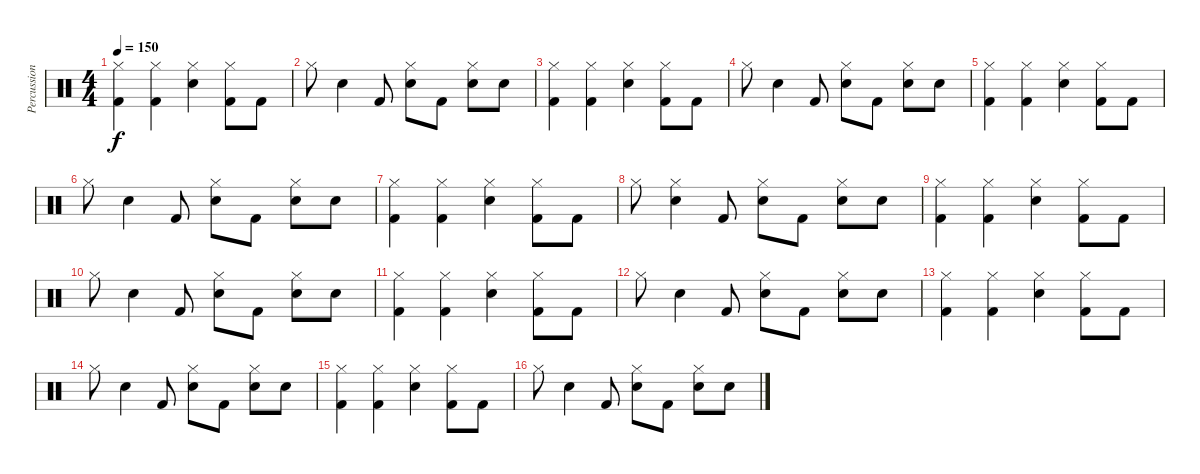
\track ("Percussion" "Percussion") {instrument percussion}
\staff {score}
\articulation defaults
\ts (4 4)
\tempo 150
\clef neutral
\ks c
("Hi-Hat (closed)" "Kick (hit) 2").4{dy f} ("Hi-Hat (closed)" "Kick (hit) 2").4 ("Hi-Hat (closed)" "Snare (hit) 2").4 ("Hi-Hat (closed)" "Kick (hit) 2").8 "Kick (hit) 2".8 |
"Hi-Hat (closed)".8 "Snare (hit) 2".4 "Kick (hit) 2".8 ("Snare (hit) 2" "Hi-Hat (closed)").8 "Kick (hit) 2".8 ("Snare (hit) 2" "Hi-Hat (closed)").8 "Snare (hit) 2".8 |
("Hi-Hat (closed)" "Kick (hit) 2").4 ("Hi-Hat (closed)" "Kick (hit) 2").4 ("Hi-Hat (closed)" "Snare (hit) 2").4 ("Hi-Hat (closed)" "Kick (hit) 2").8 "Kick (hit) 2".8 |
"Hi-Hat (closed)".8 "Snare (hit) 2".4 "Kick (hit) 2".8 ("Snare (hit) 2" "Hi-Hat (closed)").8 "Kick (hit) 2".8 ("Snare (hit) 2" "Hi-Hat (closed)").8 "Snare (hit) 2".8 |
("Hi-Hat (closed)" "Kick (hit) 2").4 ("Hi-Hat (closed)" "Kick (hit) 2").4 ("Hi-Hat (closed)" "Snare (hit) 2").4 ("Hi-Hat (closed)" "Kick (hit) 2").8 "Kick (hit) 2".8 |
"Hi-Hat (closed)".8 "Snare (hit) 2".4 "Kick (hit) 2".8 ("Snare (hit) 2" "Hi-Hat (closed)").8 "Kick (hit) 2".8 ("Snare (hit) 2" "Hi-Hat (closed)").8 "Snare (hit) 2".8 |
("Hi-Hat (closed)" "Kick (hit) 2").4 ("Hi-Hat (closed)" "Kick (hit) 2").4 ("Hi-Hat (closed)" "Snare (hit) 2").4 ("Hi-Hat (closed)" "Kick (hit) 2").8 "Kick (hit) 2".8 |
"Hi-Hat (closed)".8 ("Snare (hit) 2" "Hi-Hat (closed)").4 "Kick (hit) 2".8 ("Snare (hit) 2" "Hi-Hat (closed)").8 "Kick (hit) 2".8 ("Snare (hit) 2" "Hi-Hat (closed)").8 "Snare (hit) 2".8 |
("Hi-Hat (closed)" "Kick (hit) 2").4 ("Hi-Hat (closed)" "Kick (hit) 2").4 ("Hi-Hat (closed)" "Snare (hit) 2").4 ("Hi-Hat (closed)" "Kick (hit) 2").8 "Kick (hit) 2".8 |
"Hi-Hat (closed)".8 "Snare (hit) 2".4 "Kick (hit) 2".8 ("Snare (hit) 2" "Hi-Hat (closed)").8 "Kick (hit) 2".8 ("Snare (hit) 2" "Hi-Hat (closed)").8 "Snare (hit) 2".8 |
("Hi-Hat (closed)" "Kick (hit) 2").4 ("Hi-Hat (closed)" "Kick (hit) 2").4 ("Hi-Hat (closed)" "Snare (hit) 2").4 ("Hi-Hat (closed)" "Kick (hit) 2").8 "Kick (hit) 2".8 |
"Hi-Hat (closed)".8 "Snare (hit) 2".4 "Kick (hit) 2".8 ("Snare (hit) 2" "Hi-Hat (closed)").8 "Kick (hit) 2".8 ("Snare (hit) 2" "Hi-Hat (closed)").8 "Snare (hit) 2".8 |
("Hi-Hat (closed)" "Kick (hit) 2").4 ("Hi-Hat (closed)" "Kick (hit) 2").4 ("Hi-Hat (closed)" "Snare (hit) 2").4 ("Hi-Hat (closed)" "Kick (hit) 2").8 "Kick (hit) 2".8 |
"Hi-Hat (closed)".8 "Snare (hit) 2".4 "Kick (hit) 2".8 ("Snare (hit) 2" "Hi-Hat (closed)").8 "Kick (hit) 2".8 ("Snare (hit) 2" "Hi-Hat (closed)").8 "Snare (hit) 2".8 |
("Hi-Hat (closed)" "Kick (hit) 2").4 ("Hi-Hat (closed)" "Kick (hit) 2").4 ("Hi-Hat (closed)" "Snare (hit) 2").4 ("Hi-Hat (closed)" "Kick (hit) 2").8 "Kick (hit) 2".8 |
"Hi-Hat (closed)".8 "Snare (hit) 2".4 "Kick (hit) 2".8 ("Snare (hit) 2" "Hi-Hat (closed)").8 "Kick (hit) 2".8 ("Snare (hit) 2" "Hi-Hat (closed)").8 "Snare (hit) 2".8
